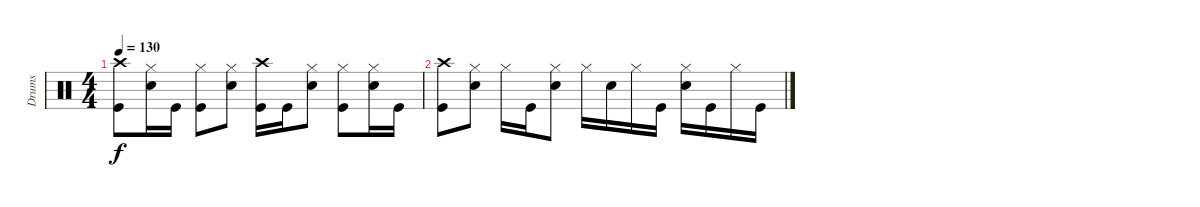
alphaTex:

\track ("Drums" "Drums") {instrument percussion}
\staff {score}
\articulation defaults
\ts (4 4)
\tempo 130
\clef neutral
\ks c
("Crash high (hit)" "Kick (hit)").8{dy f} ("Hi-Hat (closed)" "Snare (hit) 2").16 "Kick (hit)".16 ("Hi-Hat (closed)" "Kick (hit)").8 ("Hi-Hat (closed)" "Snare (hit) 2").8 ("Kick (hit)" "Crash high (hit)").16 "Kick (hit)".16 ("Hi-Hat (closed)" "Snare (hit) 2").8 ("Hi-Hat (closed)" "Kick (hit)").8 ("Hi-Hat (closed)" "Snare (hit) 2").16 "Kick (hit)".16 |
("Crash high (hit)" "Kick (hit)").8 ("Snare (hit) 2" "Hi-Hat (closed)").8 "Hi-Hat (closed)".16 "Kick (hit)".16 ("Hi-Hat (closed)" "Snare (hit) 2").8 "Hi-Hat (closed)".16 "Snare (hit) 2".16 "Hi-Hat (closed)".16 "Kick (hit)".16 ("Hi-Hat (closed)" "Snare (hit) 2").16 "Kick (hit)".16 "Hi-Hat (closed)".16 "Kick (hit)".16
